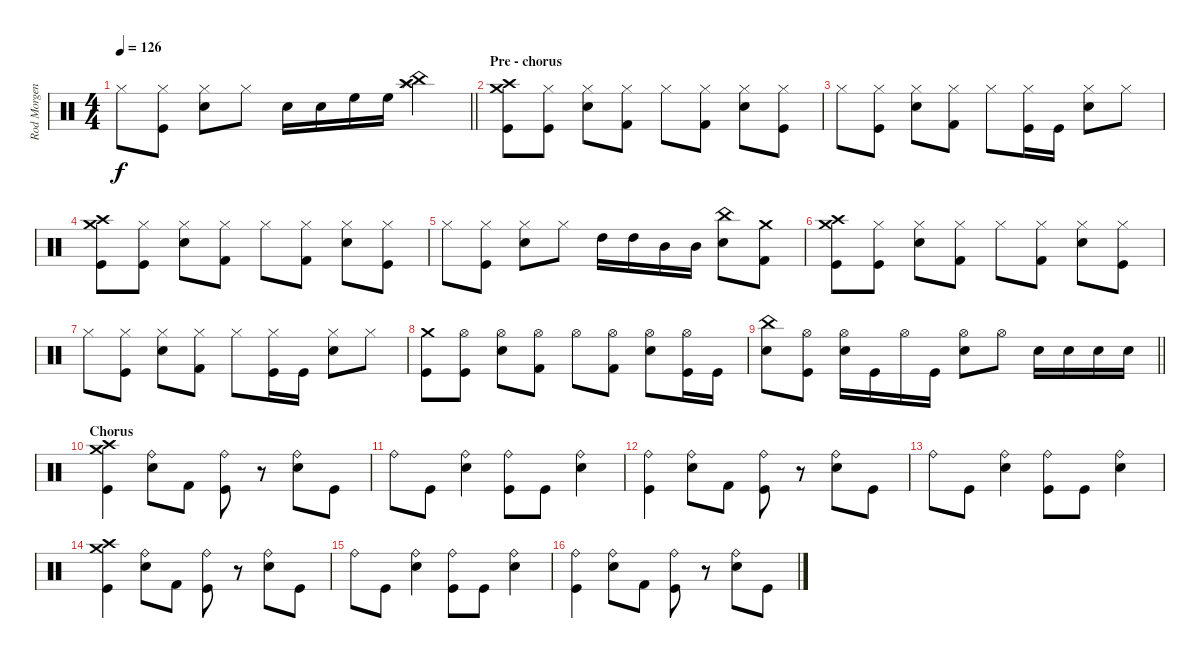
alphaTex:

\track ("Rod Morgenstein" "Rod Morgen") {instrument percussion}
\staff {score}
\articulation defaults
\ts (4 4)
\tempo 126
\clef neutral
\barLineRight lightlight
\ks c "Hi-Hat (closed)".8{dy f}
("Hi-Hat (closed)" "Kick (hit)").8 ("Hi-Hat (closed)" "Snare (hit) 2").8 "Hi-Hat (closed)".8 "Snare (hit) 2".16 "Snare (hit) 2".16 "High Floor Tom (hit)".16 "High Floor Tom (hit)".16 ("Crash high (hit)" "Splash (hit)" "China (hit)").4 |
\section ("" "Pre - chorus")
("Kick (hit)" "Crash high (hit)" "Crash medium (hit)").8 ("Kick (hit)" "Hi-Hat (closed)").8 ("Snare (hit) 2" "Hi-Hat (closed)").8 ("Kick (hit) 2" "Hi-Hat (closed)").8 "Hi-Hat (closed)".8 ("Kick (hit) 2" "Hi-Hat (closed)").8 ("Snare (hit) 2" "Hi-Hat (closed)").8 ("Kick (hit)" "Hi-Hat (closed)").8 |
"Hi-Hat (closed)".8 ("Kick (hit)" "Hi-Hat (closed)").8 ("Hi-Hat (closed)" "Snare (hit) 2").8 ("Kick (hit) 2" "Hi-Hat (closed)").8 "Hi-Hat (closed)".8 ("Kick (hit)" "Hi-Hat (closed)").16 "Kick (hit)".16 ("Hi-Hat (closed)" "Snare (hit) 2").8 "Hi-Hat (closed)".8 |
("Kick (hit)" "Crash high (hit)" "Crash medium (hit)").8 ("Kick (hit)" "Hi-Hat (closed)").8 ("Snare (hit) 2" "Hi-Hat (closed)").8 ("Kick (hit) 2" "Hi-Hat (closed)").8 "Hi-Hat (closed)".8 ("Kick (hit) 2" "Hi-Hat (closed)").8 ("Snare (hit) 2" "Hi-Hat (closed)").8 ("Kick (hit)" "Hi-Hat (closed)").8 |
"Hi-Hat (closed)".8 ("Hi-Hat (closed)" "Kick (hit)").8 ("Hi-Hat (closed)" "Snare (hit) 2").8 "Hi-Hat (closed)".8 "High Tom (hit)".16 "High Tom (hit)".16 "Mid Tom (hit)".16 "Mid Tom (hit)".16 ("Snare (hit) 2" "China (hit)").8 ("Crash medium (hit)" "Kick (hit) 2").8 |
("Kick (hit)" "Crash high (hit)" "Crash medium (hit)").8 ("Kick (hit)" "Hi-Hat (closed)").8 ("Snare (hit) 2" "Hi-Hat (closed)").8 ("Kick (hit) 2" "Hi-Hat (closed)").8 "Hi-Hat (closed)".8 ("Kick (hit) 2" "Hi-Hat (closed)").8 ("Snare (hit) 2" "Hi-Hat (closed)").8 ("Kick (hit)" "Hi-Hat (closed)").8 |
"Hi-Hat (closed)".8 ("Kick (hit)" "Hi-Hat (closed)").8 ("Hi-Hat (closed)" "Snare (hit) 2").8 ("Kick (hit) 2" "Hi-Hat (closed)").8 "Hi-Hat (closed)".8 ("Kick (hit)" "Hi-Hat (closed)").16 "Kick (hit)".16 ("Hi-Hat (closed)" "Snare (hit) 2").8 "Hi-Hat (closed)".8 |
("Kick (hit)" "Crash medium (hit)").8 ("Hi-Hat (open)" "Kick (hit)").8 ("Snare (hit) 2" "Hi-Hat (open)").8 ("Kick (hit) 2" "Hi-Hat (open)").8 "Hi-Hat (open)".8 ("Kick (hit) 2" "Hi-Hat (open)").8 ("Snare (hit) 2" "Hi-Hat (open)").8 ("Kick (hit)" "Hi-Hat (open)").16 "Kick (hit)".16 |
\barLineRight lightlight
("Snare (hit) 2" "China (hit)").8 ("Kick (hit)" "Hi-Hat (open)").8 ("Snare (hit) 2" "Hi-Hat (open)").16 "Kick (hit)".16 "Hi-Hat (open)".16 "Kick (hit)".16 ("Hi-Hat (open)" "Snare (hit) 2").8 "Hi-Hat (open)".8 "Snare (hit) 2".16 "Snare (hit) 2".16 "Snare (hit) 2".16 "Snare (hit) 2".16 |
\section ("" "Chorus")
("Crash high (hit)" "Crash medium (hit)" "Kick (hit)").4 ("Snare (hit) 2" "Ride (bell)").8 "Kick (hit) 2".8 ("Ride (bell)" "Kick (hit)").8 r.8 ("Ride (bell)" "Snare (hit) 2").8 "Kick (hit)".8 |
"Ride (bell)".8 "Kick (hit)".8 ("Snare (hit) 2" "Ride (bell)").4 ("Ride (bell)" "Kick (hit)").8 "Kick (hit)".8 ("Ride (bell)" "Snare (hit) 2").4 |
("Ride (bell)" "Kick (hit)").4 ("Snare (hit) 2" "Ride (bell)").8 "Kick (hit) 2".8 ("Ride (bell)" "Kick (hit)").8 r.8 ("Ride (bell)" "Snare (hit) 2").8 "Kick (hit)".8 |
"Ride (bell)".8 "Kick (hit)".8 ("Snare (hit) 2" "Ride (bell)").4 ("Ride (bell)" "Kick (hit)").8 "Kick (hit)".8 ("Ride (bell)" "Snare (hit) 2").4 |
("Crash high (hit)" "Crash medium (hit)" "Kick (hit)").4 ("Snare (hit) 2" "Ride (bell)").8 "Kick (hit) 2".8 ("Ride (bell)" "Kick (hit)").8 r.8 ("Ride (bell)" "Snare (hit) 2").8 "Kick (hit)".8 |
"Ride (bell)".8 "Kick (hit)".8 ("Snare (hit) 2" "Ride (bell)").4 ("Ride (bell)" "Kick (hit)").8 "Kick (hit)".8 ("Ride (bell)" "Snare (hit) 2").4 |
("Ride (bell)" "Kick (hit)").4 ("Snare (hit) 2" "Ride (bell)").8 "Kick (hit) 2".8 ("Ride (bell)" "Kick (hit)").8 r.8 ("Ride (bell)" "Snare (hit) 2").8 "Kick (hit)".8
